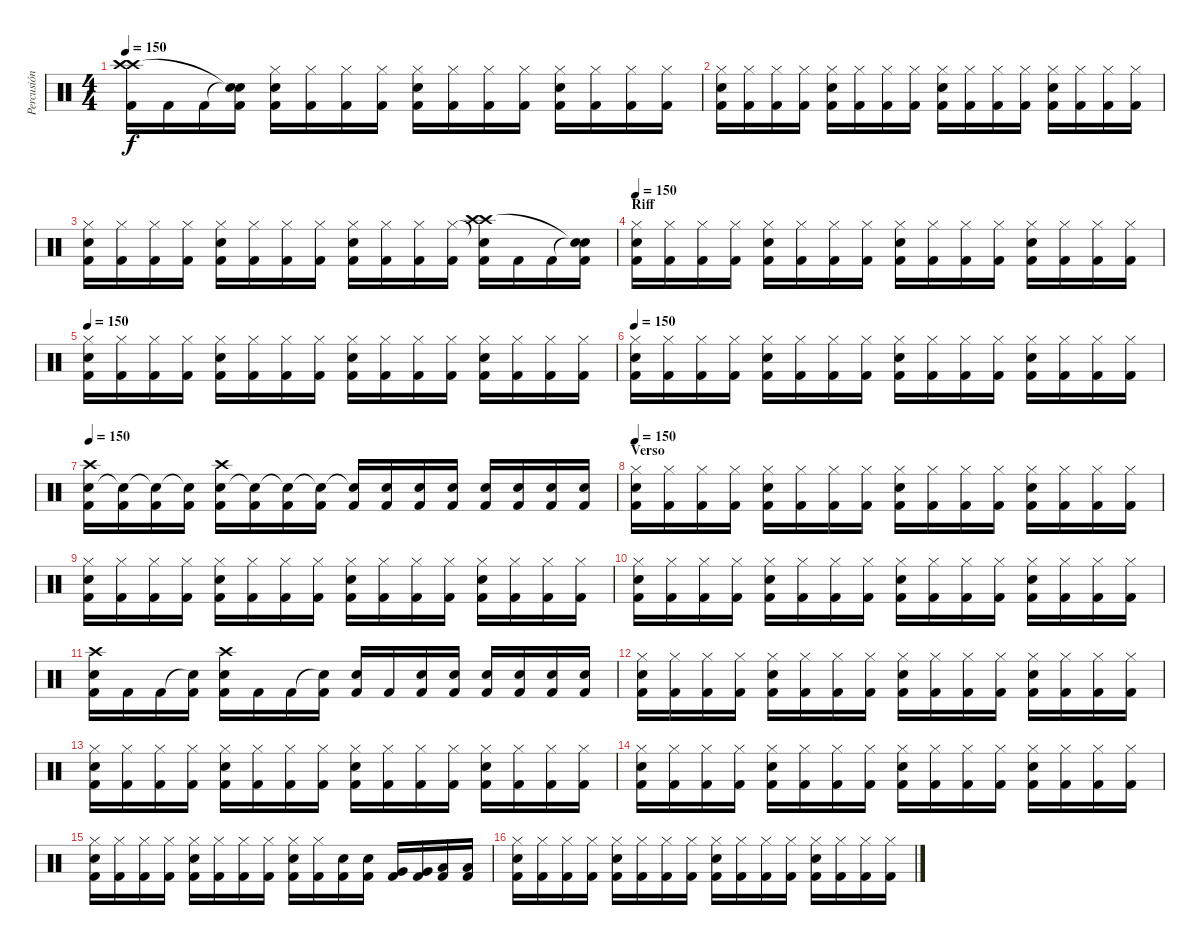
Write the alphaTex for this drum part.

\track ("Percusión" "Percusión") {instrument percussion}
\staff {score}
\articulation defaults
\ts (4 4)
\tempo 150
\clef neutral
\ks c
("Crash high (hit)" "Crash high (hit)" "Kick (hit) 2").16{dy f} "Kick (hit) 2".16 "Kick (hit) 2".16 ("Snare (hit)"{t} "Snare (hit)"{t} "Kick (hit) 2").16 ("Hi-Hat (closed)" "Electric Snare (hit)" "Kick (hit) 2").16 ("Hi-Hat (closed)" "Kick (hit) 2").16 ("Hi-Hat (closed)" "Kick (hit) 2").16 ("Hi-Hat (closed)" "Kick (hit) 2").16 ("Hi-Hat (closed)" "Electric Snare (hit)" "Kick (hit) 2").16 ("Hi-Hat (closed)" "Kick (hit) 2").16 ("Hi-Hat (closed)" "Kick (hit) 2").16 ("Hi-Hat (closed)" "Kick (hit) 2").16 ("Hi-Hat (closed)" "Electric Snare (hit)" "Kick (hit) 2").16 ("Hi-Hat (closed)" "Kick (hit) 2").16 ("Hi-Hat (closed)" "Kick (hit) 2").16 ("Hi-Hat (closed)" "Kick (hit) 2").16 |
("Hi-Hat (closed)" "Electric Snare (hit)" "Kick (hit) 2").16 ("Hi-Hat (closed)" "Kick (hit) 2").16 ("Hi-Hat (closed)" "Kick (hit) 2").16 ("Hi-Hat (closed)" "Kick (hit) 2").16 ("Hi-Hat (closed)" "Electric Snare (hit)" "Kick (hit) 2").16 ("Hi-Hat (closed)" "Kick (hit) 2").16 ("Hi-Hat (closed)" "Kick (hit) 2").16 ("Hi-Hat (closed)" "Kick (hit) 2").16 ("Hi-Hat (closed)" "Electric Snare (hit)" "Kick (hit) 2").16 ("Hi-Hat (closed)" "Kick (hit) 2").16 ("Hi-Hat (closed)" "Kick (hit) 2").16 ("Hi-Hat (closed)" "Kick (hit) 2").16 ("Hi-Hat (closed)" "Electric Snare (hit)" "Kick (hit) 2").16 ("Hi-Hat (closed)" "Kick (hit) 2").16 ("Hi-Hat (closed)" "Kick (hit) 2").16 ("Hi-Hat (closed)" "Kick (hit) 2").16 |
("Hi-Hat (closed)" "Electric Snare (hit)" "Kick (hit) 2").16 ("Hi-Hat (closed)" "Kick (hit) 2").16 ("Hi-Hat (closed)" "Kick (hit) 2").16 ("Hi-Hat (closed)" "Kick (hit) 2").16 ("Hi-Hat (closed)" "Electric Snare (hit)" "Kick (hit) 2").16 ("Hi-Hat (closed)" "Kick (hit) 2").16 ("Hi-Hat (closed)" "Kick (hit) 2").16 ("Hi-Hat (closed)" "Kick (hit) 2").16 ("Hi-Hat (closed)" "Electric Snare (hit)" "Kick (hit) 2").16 ("Hi-Hat (closed)" "Kick (hit) 2").16 ("Hi-Hat (closed)" "Kick (hit) 2").16 ("Hi-Hat (closed)" "Kick (hit) 2").16 ("Snare (hit)"{t} "Crash high (hit)" "Crash high (hit)" "Kick (hit) 2").16 "Kick (hit) 2".16 "Kick (hit) 2".16 ("Snare (hit)"{t} "Snare (hit)"{t} "Kick (hit) 2").16 |
\section ("" "Riff")
\tempo 150
("Hi-Hat (closed)" "Electric Snare (hit)" "Kick (hit) 2").16 ("Hi-Hat (closed)" "Kick (hit) 2").16 ("Hi-Hat (closed)" "Kick (hit) 2").16 ("Hi-Hat (closed)" "Kick (hit) 2").16 ("Hi-Hat (closed)" "Electric Snare (hit)" "Kick (hit) 2").16 ("Hi-Hat (closed)" "Kick (hit) 2").16 ("Hi-Hat (closed)" "Kick (hit) 2").16 ("Hi-Hat (closed)" "Kick (hit) 2").16 ("Hi-Hat (closed)" "Electric Snare (hit)" "Kick (hit) 2").16 ("Hi-Hat (closed)" "Kick (hit) 2").16 ("Hi-Hat (closed)" "Kick (hit) 2").16 ("Hi-Hat (closed)" "Kick (hit) 2").16 ("Hi-Hat (closed)" "Electric Snare (hit)" "Kick (hit) 2").16 ("Hi-Hat (closed)" "Kick (hit) 2").16 ("Hi-Hat (closed)" "Kick (hit) 2").16 ("Hi-Hat (closed)" "Kick (hit) 2").16 |
\tempo 150
("Hi-Hat (closed)" "Electric Snare (hit)" "Kick (hit) 2").16 ("Hi-Hat (closed)" "Kick (hit) 2").16 ("Hi-Hat (closed)" "Kick (hit) 2").16 ("Hi-Hat (closed)" "Kick (hit) 2").16 ("Hi-Hat (closed)" "Electric Snare (hit)" "Kick (hit) 2").16 ("Hi-Hat (closed)" "Kick (hit) 2").16 ("Hi-Hat (closed)" "Kick (hit) 2").16 ("Hi-Hat (closed)" "Kick (hit) 2").16 ("Hi-Hat (closed)" "Electric Snare (hit)" "Kick (hit) 2").16 ("Hi-Hat (closed)" "Kick (hit) 2").16 ("Hi-Hat (closed)" "Kick (hit) 2").16 ("Hi-Hat (closed)" "Kick (hit) 2").16 ("Hi-Hat (closed)" "Electric Snare (hit)" "Kick (hit) 2").16 ("Hi-Hat (closed)" "Kick (hit) 2").16 ("Hi-Hat (closed)" "Kick (hit) 2").16 ("Hi-Hat (closed)" "Kick (hit) 2").16 |
\tempo 150
("Hi-Hat (closed)" "Electric Snare (hit)" "Kick (hit) 2").16 ("Hi-Hat (closed)" "Kick (hit) 2").16 ("Hi-Hat (closed)" "Kick (hit) 2").16 ("Hi-Hat (closed)" "Kick (hit) 2").16 ("Hi-Hat (closed)" "Electric Snare (hit)" "Kick (hit) 2").16 ("Hi-Hat (closed)" "Kick (hit) 2").16 ("Hi-Hat (closed)" "Kick (hit) 2").16 ("Hi-Hat (closed)" "Kick (hit) 2").16 ("Hi-Hat (closed)" "Electric Snare (hit)" "Kick (hit) 2").16 ("Hi-Hat (closed)" "Kick (hit) 2").16 ("Hi-Hat (closed)" "Kick (hit) 2").16 ("Hi-Hat (closed)" "Kick (hit) 2").16 ("Hi-Hat (closed)" "Electric Snare (hit)" "Kick (hit) 2").16 ("Hi-Hat (closed)" "Kick (hit) 2").16 ("Hi-Hat (closed)" "Kick (hit) 2").16 ("Hi-Hat (closed)" "Kick (hit) 2").16 |
\tempo 150
("Electric Snare (hit)" "Crash high (hit)" "Kick (hit) 2").16 ("Snare (hit)"{t} "Kick (hit) 2").16 ("Snare (hit)"{t} "Kick (hit) 2").16 ("Snare (hit)"{t} "Kick (hit) 2").16 ("Electric Snare (hit)" "Crash high (hit)" "Kick (hit) 2").16 ("Snare (hit)"{t} "Kick (hit) 2").16 ("Snare (hit)"{t} "Kick (hit) 2").16 ("Snare (hit)"{t} "Kick (hit) 2").16 ("Snare (hit)"{t} "Kick (hit) 2").16 ("Electric Snare (hit)" "Kick (hit) 2").16 ("Electric Snare (hit)" "Kick (hit) 2").16 ("Electric Snare (hit)" "Kick (hit) 2").16 ("Electric Snare (hit)" "Kick (hit) 2").16 ("Electric Snare (hit)" "Kick (hit) 2").16 ("Electric Snare (hit)" "Kick (hit) 2").16 ("Electric Snare (hit)" "Kick (hit) 2").16 |
\section ("" "Verso")
\tempo 150
("Hi-Hat (closed)" "Electric Snare (hit)" "Kick (hit) 2").16 ("Hi-Hat (closed)" "Kick (hit) 2").16 ("Hi-Hat (closed)" "Kick (hit) 2").16 ("Hi-Hat (closed)" "Kick (hit) 2").16 ("Hi-Hat (closed)" "Electric Snare (hit)" "Kick (hit) 2").16 ("Hi-Hat (closed)" "Kick (hit) 2").16 ("Hi-Hat (closed)" "Kick (hit) 2").16 ("Hi-Hat (closed)" "Kick (hit) 2").16 ("Hi-Hat (closed)" "Electric Snare (hit)" "Kick (hit) 2").16 ("Hi-Hat (closed)" "Kick (hit) 2").16 ("Hi-Hat (closed)" "Kick (hit) 2").16 ("Hi-Hat (closed)" "Kick (hit) 2").16 ("Hi-Hat (closed)" "Electric Snare (hit)" "Kick (hit) 2").16 ("Hi-Hat (closed)" "Kick (hit) 2").16 ("Hi-Hat (closed)" "Kick (hit) 2").16 ("Hi-Hat (closed)" "Kick (hit) 2").16 |
("Hi-Hat (closed)" "Electric Snare (hit)" "Kick (hit) 2").16 ("Hi-Hat (closed)" "Kick (hit) 2").16 ("Hi-Hat (closed)" "Kick (hit) 2").16 ("Hi-Hat (closed)" "Kick (hit) 2").16 ("Hi-Hat (closed)" "Electric Snare (hit)" "Kick (hit) 2").16 ("Hi-Hat (closed)" "Kick (hit) 2").16 ("Hi-Hat (closed)" "Kick (hit) 2").16 ("Hi-Hat (closed)" "Kick (hit) 2").16 ("Hi-Hat (closed)" "Electric Snare (hit)" "Kick (hit) 2").16 ("Hi-Hat (closed)" "Kick (hit) 2").16 ("Hi-Hat (closed)" "Kick (hit) 2").16 ("Hi-Hat (closed)" "Kick (hit) 2").16 ("Hi-Hat (closed)" "Electric Snare (hit)" "Kick (hit) 2").16 ("Hi-Hat (closed)" "Kick (hit) 2").16 ("Hi-Hat (closed)" "Kick (hit) 2").16 ("Hi-Hat (closed)" "Kick (hit) 2").16 |
("Hi-Hat (closed)" "Electric Snare (hit)" "Kick (hit) 2").16 ("Hi-Hat (closed)" "Kick (hit) 2").16 ("Hi-Hat (closed)" "Kick (hit) 2").16 ("Hi-Hat (closed)" "Kick (hit) 2").16 ("Hi-Hat (closed)" "Electric Snare (hit)" "Kick (hit) 2").16 ("Hi-Hat (closed)" "Kick (hit) 2").16 ("Hi-Hat (closed)" "Kick (hit) 2").16 ("Hi-Hat (closed)" "Kick (hit) 2").16 ("Hi-Hat (closed)" "Electric Snare (hit)" "Kick (hit) 2").16 ("Hi-Hat (closed)" "Kick (hit) 2").16 ("Hi-Hat (closed)" "Kick (hit) 2").16 ("Hi-Hat (closed)" "Kick (hit) 2").16 ("Hi-Hat (closed)" "Electric Snare (hit)" "Kick (hit) 2").16 ("Hi-Hat (closed)" "Kick (hit) 2").16 ("Hi-Hat (closed)" "Kick (hit) 2").16 ("Hi-Hat (closed)" "Kick (hit) 2").16 |
("Electric Snare (hit)" "Crash high (hit)" "Kick (hit) 2").16 "Kick (hit) 2".16 "Kick (hit) 2".16 ("Snare (hit)"{t} "Kick (hit) 2").16 ("Electric Snare (hit)" "Crash high (hit)" "Kick (hit) 2").16 "Kick (hit) 2".16 "Kick (hit) 2".16 ("Snare (hit)"{t} "Kick (hit) 2").16 ("Electric Snare (hit)" "Kick (hit) 2").16 "Kick (hit) 2".16 ("Electric Snare (hit)" "Kick (hit) 2").16 ("Electric Snare (hit)" "Kick (hit) 2").16 ("Electric Snare (hit)" "Kick (hit) 2").16 ("Electric Snare (hit)" "Kick (hit) 2").16 ("Electric Snare (hit)" "Kick (hit) 2").16 ("Electric Snare (hit)" "Kick (hit) 2").16 |
("Hi-Hat (closed)" "Electric Snare (hit)" "Kick (hit) 2").16 ("Hi-Hat (closed)" "Kick (hit) 2").16 ("Hi-Hat (closed)" "Kick (hit) 2").16 ("Hi-Hat (closed)" "Kick (hit) 2").16 ("Hi-Hat (closed)" "Electric Snare (hit)" "Kick (hit) 2").16 ("Hi-Hat (closed)" "Kick (hit) 2").16 ("Hi-Hat (closed)" "Kick (hit) 2").16 ("Hi-Hat (closed)" "Kick (hit) 2").16 ("Hi-Hat (closed)" "Electric Snare (hit)" "Kick (hit) 2").16 ("Hi-Hat (closed)" "Kick (hit) 2").16 ("Hi-Hat (closed)" "Kick (hit) 2").16 ("Hi-Hat (closed)" "Kick (hit) 2").16 ("Hi-Hat (closed)" "Electric Snare (hit)" "Kick (hit) 2").16 ("Hi-Hat (closed)" "Kick (hit) 2").16 ("Hi-Hat (closed)" "Kick (hit) 2").16 ("Hi-Hat (closed)" "Kick (hit) 2").16 |
("Hi-Hat (closed)" "Electric Snare (hit)" "Kick (hit) 2").16 ("Hi-Hat (closed)" "Kick (hit) 2").16 ("Hi-Hat (closed)" "Kick (hit) 2").16 ("Hi-Hat (closed)" "Kick (hit) 2").16 ("Hi-Hat (closed)" "Electric Snare (hit)" "Kick (hit) 2").16 ("Hi-Hat (closed)" "Kick (hit) 2").16 ("Hi-Hat (closed)" "Kick (hit) 2").16 ("Hi-Hat (closed)" "Kick (hit) 2").16 ("Hi-Hat (closed)" "Electric Snare (hit)" "Kick (hit) 2").16 ("Hi-Hat (closed)" "Kick (hit) 2").16 ("Hi-Hat (closed)" "Kick (hit) 2").16 ("Hi-Hat (closed)" "Kick (hit) 2").16 ("Hi-Hat (closed)" "Electric Snare (hit)" "Kick (hit) 2").16 ("Hi-Hat (closed)" "Kick (hit) 2").16 ("Hi-Hat (closed)" "Kick (hit) 2").16 ("Hi-Hat (closed)" "Kick (hit) 2").16 |
("Hi-Hat (closed)" "Electric Snare (hit)" "Kick (hit) 2").16 ("Hi-Hat (closed)" "Kick (hit) 2").16 ("Hi-Hat (closed)" "Kick (hit) 2").16 ("Hi-Hat (closed)" "Kick (hit) 2").16 ("Hi-Hat (closed)" "Electric Snare (hit)" "Kick (hit) 2").16 ("Hi-Hat (closed)" "Kick (hit) 2").16 ("Hi-Hat (closed)" "Kick (hit) 2").16 ("Hi-Hat (closed)" "Kick (hit) 2").16 ("Hi-Hat (closed)" "Electric Snare (hit)" "Kick (hit) 2").16 ("Hi-Hat (closed)" "Kick (hit) 2").16 ("Hi-Hat (closed)" "Kick (hit) 2").16 ("Hi-Hat (closed)" "Kick (hit) 2").16 ("Hi-Hat (closed)" "Electric Snare (hit)" "Kick (hit) 2").16 ("Hi-Hat (closed)" "Kick (hit) 2").16 ("Hi-Hat (closed)" "Kick (hit) 2").16 ("Hi-Hat (closed)" "Kick (hit) 2").16 |
("Hi-Hat (closed)" "Electric Snare (hit)" "Kick (hit) 2").16 ("Hi-Hat (closed)" "Kick (hit) 2").16 ("Hi-Hat (closed)" "Kick (hit) 2").16 ("Hi-Hat (closed)" "Kick (hit) 2").16 ("Hi-Hat (closed)" "Electric Snare (hit)" "Kick (hit) 2").16 ("Hi-Hat (closed)" "Kick (hit) 2").16 ("Hi-Hat (closed)" "Kick (hit) 2").16 ("Hi-Hat (closed)" "Kick (hit) 2").16 ("Hi-Hat (closed)" "Electric Snare (hit)" "Kick (hit) 2").16 ("Hi-Hat (closed)" "Kick (hit) 2").16 ("Electric Snare (hit)" "Kick (hit) 2").16 ("Electric Snare (hit)" "Kick (hit) 2").16 ("Very Low Tom (hit)" "Kick (hit) 2").16 ("Very Low Tom (hit)" "Kick (hit) 2").16 ("Low Tom (hit)" "Kick (hit) 2").16 ("Low Tom (hit)" "Kick (hit) 2").16 |
("Hi-Hat (closed)" "Electric Snare (hit)" "Kick (hit) 2").16 ("Hi-Hat (closed)" "Kick (hit) 2").16 ("Hi-Hat (closed)" "Kick (hit) 2").16 ("Hi-Hat (closed)" "Kick (hit) 2").16 ("Hi-Hat (closed)" "Electric Snare (hit)" "Kick (hit) 2").16 ("Hi-Hat (closed)" "Kick (hit) 2").16 ("Hi-Hat (closed)" "Kick (hit) 2").16 ("Hi-Hat (closed)" "Kick (hit) 2").16 ("Hi-Hat (closed)" "Electric Snare (hit)" "Kick (hit) 2").16 ("Hi-Hat (closed)" "Kick (hit) 2").16 ("Hi-Hat (closed)" "Kick (hit) 2").16 ("Hi-Hat (closed)" "Kick (hit) 2").16 ("Hi-Hat (closed)" "Electric Snare (hit)" "Kick (hit) 2").16 ("Hi-Hat (closed)" "Kick (hit) 2").16 ("Hi-Hat (closed)" "Kick (hit) 2").16 ("Hi-Hat (closed)" "Kick (hit) 2").16
